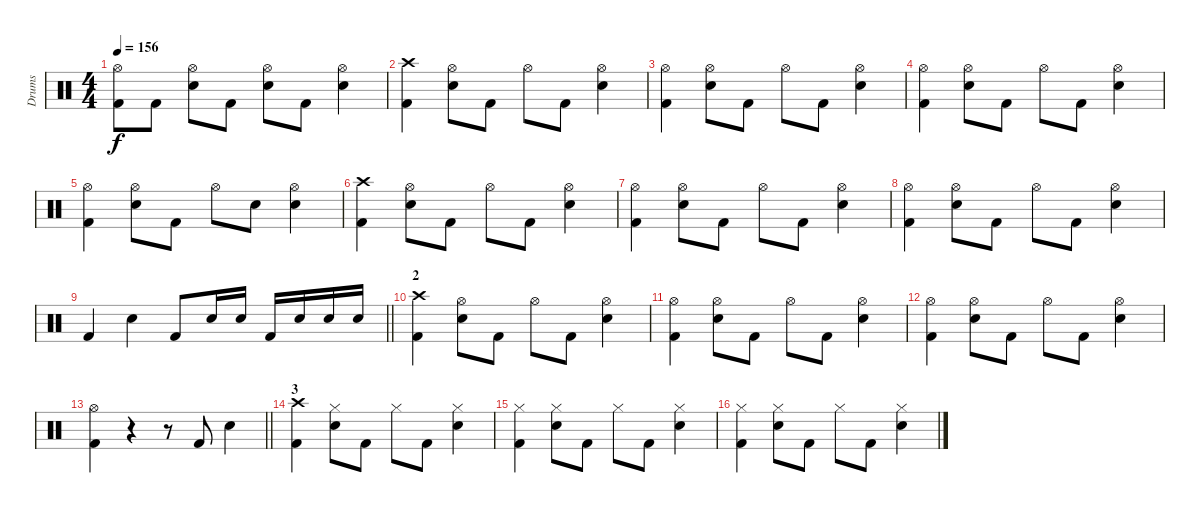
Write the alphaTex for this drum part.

\track ("Drums" "Drums") {instrument percussion}
\staff {score}
\articulation defaults
\ts (4 4)
\tempo 156
\clef neutral
\ks c
("Hi-Hat (open)" "Kick (hit) 2").8{dy f} "Kick (hit) 2".8 ("Hi-Hat (open)" "Snare (hit) 2").8 "Kick (hit) 2".8 ("Hi-Hat (open)" "Snare (hit) 2").8 "Kick (hit) 2".8 ("Hi-Hat (open)" "Snare (hit) 2").4 |
("Crash high (hit)" "Kick (hit) 2").4 ("Hi-Hat (open)" "Snare (hit) 2").8 "Kick (hit) 2".8 "Hi-Hat (open)".8 "Kick (hit) 2".8 ("Hi-Hat (open)" "Snare (hit) 2").4 |
("Hi-Hat (open)" "Kick (hit) 2").4 ("Hi-Hat (open)" "Snare (hit) 2").8 "Kick (hit) 2".8 "Hi-Hat (open)".8 "Kick (hit) 2".8 ("Hi-Hat (open)" "Snare (hit) 2").4 |
("Hi-Hat (open)" "Kick (hit) 2").4 ("Hi-Hat (open)" "Snare (hit) 2").8 "Kick (hit) 2".8 "Hi-Hat (open)".8 "Kick (hit) 2".8 ("Hi-Hat (open)" "Snare (hit) 2").4 |
("Hi-Hat (open)" "Kick (hit) 2").4 ("Hi-Hat (open)" "Snare (hit) 2").8 "Kick (hit) 2".8 "Hi-Hat (open)".8 "Snare (hit) 2".8 ("Hi-Hat (open)" "Snare (hit) 2").4 |
("Crash high (hit)" "Kick (hit) 2").4 ("Hi-Hat (open)" "Snare (hit) 2").8 "Kick (hit) 2".8 "Hi-Hat (open)".8 "Kick (hit) 2".8 ("Hi-Hat (open)" "Snare (hit) 2").4 |
("Hi-Hat (open)" "Kick (hit) 2").4 ("Hi-Hat (open)" "Snare (hit) 2").8 "Kick (hit) 2".8 "Hi-Hat (open)".8 "Kick (hit) 2".8 ("Hi-Hat (open)" "Snare (hit) 2").4 |
("Hi-Hat (open)" "Kick (hit) 2").4 ("Hi-Hat (open)" "Snare (hit) 2").8 "Kick (hit) 2".8 "Hi-Hat (open)".8 "Kick (hit) 2".8 ("Hi-Hat (open)" "Snare (hit) 2").4 |
\barLineRight lightlight "Kick (hit) 2".4 "Snare (hit) 2".4 "Kick (hit) 2".8 "Snare (hit) 2".16 "Snare (hit) 2".16 "Kick (hit) 2".16 "Snare (hit) 2".16 "Snare (hit) 2".16 "Snare (hit) 2".16
|
\section ("" "2")
("Crash high (hit)" "Kick (hit) 2").4 ("Hi-Hat (open)" "Snare (hit) 2").8 "Kick (hit) 2".8 "Hi-Hat (open)".8 "Kick (hit) 2".8 ("Hi-Hat (open)" "Snare (hit) 2").4 |
("Hi-Hat (open)" "Kick (hit) 2").4 ("Hi-Hat (open)" "Snare (hit) 2").8 "Kick (hit) 2".8 "Hi-Hat (open)".8 "Kick (hit) 2".8 ("Hi-Hat (open)" "Snare (hit) 2").4 |
("Hi-Hat (open)" "Kick (hit) 2").4 ("Hi-Hat (open)" "Snare (hit) 2").8 "Kick (hit) 2".8 "Hi-Hat (open)".8 "Kick (hit) 2".8 ("Hi-Hat (open)" "Snare (hit) 2").4 |
\barLineRight lightlight
("Hi-Hat (open)" "Kick (hit) 2").4 r.4 r.8 "Kick (hit) 2".8 "Snare (hit) 2".4 |
\section ("" "3")
("Crash high (hit)" "Kick (hit) 2").4 ("Hi-Hat (closed)" "Snare (hit) 2").8 "Kick (hit) 2".8 "Hi-Hat (closed)".8 "Kick (hit) 2".8 ("Hi-Hat (closed)" "Snare (hit) 2").4 |
("Hi-Hat (closed)" "Kick (hit) 2").4 ("Hi-Hat (closed)" "Snare (hit) 2").8 "Kick (hit) 2".8 "Hi-Hat (closed)".8 "Kick (hit) 2".8 ("Hi-Hat (closed)" "Snare (hit) 2").4 |
("Hi-Hat (closed)" "Kick (hit) 2").4 ("Hi-Hat (closed)" "Snare (hit) 2").8 "Kick (hit) 2".8 "Hi-Hat (closed)".8 "Kick (hit) 2".8 ("Hi-Hat (closed)" "Snare (hit) 2").4
